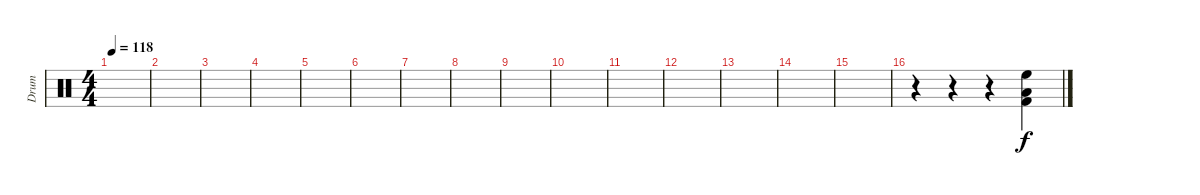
\track ("Drum" "Drum") {instrument percussion}
\staff {score}
\articulation defaults
\ts (4 4)
\tempo 118
\clef neutral
\ks c
|
|
|
|
|
|
|
|
|
|
|
|
|
|
|
r.4 r.4 r.4 ("Kick (hit) 2" "Low Tom (hit)" "High Floor Tom (hit)").4
